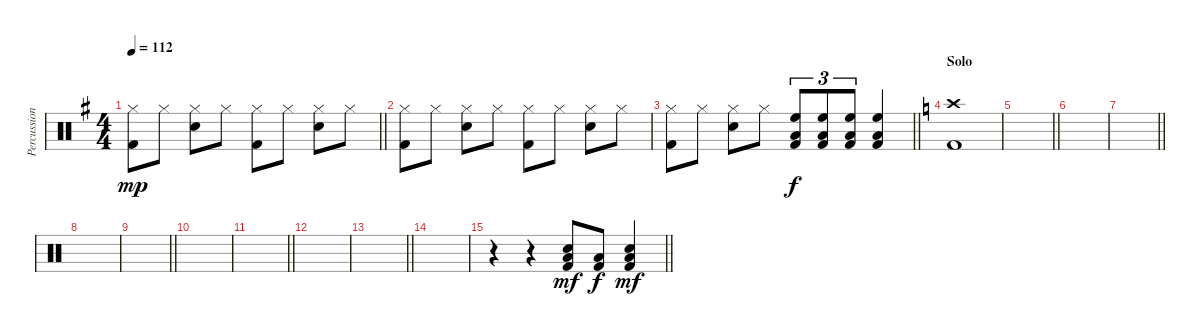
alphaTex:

\track ("Percussion" "Percussion") {instrument percussion}
\staff {score}
\articulation defaults
\ts (4 4)
\tempo 112
\clef neutral
\barLineRight lightlight
\ks g
("Hi-Hat (closed)" "Kick (hit) 2").8{dy mp} "Hi-Hat (closed)".8 ("Hi-Hat (closed)" "Snare (hit) 2").8 "Hi-Hat (closed)".8 ("Hi-Hat (closed)" "Kick (hit) 2").8 "Hi-Hat (closed)".8 ("Hi-Hat (closed)" "Snare (hit) 2").8 "Hi-Hat (closed)".8 |
\section ("" "")
("Hi-Hat (closed)" "Kick (hit) 2").8 "Hi-Hat (closed)".8 ("Hi-Hat (closed)" "Snare (hit) 2").8 "Hi-Hat (closed)".8 ("Hi-Hat (closed)" "Kick (hit) 2").8 "Hi-Hat (closed)".8 ("Hi-Hat (closed)" "Snare (hit) 2").8 "Hi-Hat (closed)".8 |
\barLineRight lightlight
("Hi-Hat (closed)" "Kick (hit) 2").8 "Hi-Hat (closed)".8 ("Hi-Hat (closed)" "Snare (hit) 2").8 "Hi-Hat (closed)".8 ("High Floor Tom (hit)" "Low Floor Tom (hit)" "Kick (hit) 2").8{tu (3 2) dy f} ("High Floor Tom (hit)" "Low Floor Tom (hit)" "Kick (hit) 2").8{tu (3 2)} ("High Floor Tom (hit)" "Low Floor Tom (hit)" "Kick (hit) 2").8{tu (3 2)} ("High Floor Tom (hit)" "Low Floor Tom (hit)" "Kick (hit) 2").4 |
\section ("" "Solo")
\ks c
("Crash high (hit)" "Kick (hit) 2").1 |
\barLineRight lightlight
|
|
\barLineRight lightlight
|
|
\barLineRight lightlight
|
|
\barLineRight lightlight
|
|
\barLineRight lightlight
|
|
\barLineRight lightlight
r.4 r.4 ("Snare (hit) 2" "Low Floor Tom (hit)" "Kick (hit) 2").8{dy mf} ("Low Floor Tom (hit)" "Kick (hit) 2").8{dy f} ("Snare (hit) 2" "Low Floor Tom (hit)" "Kick (hit) 2").4{dy mf}
